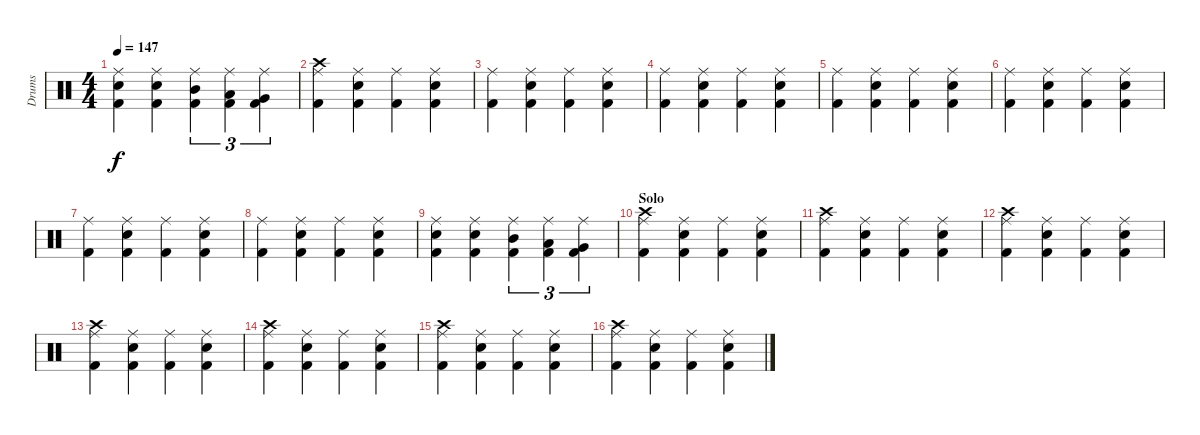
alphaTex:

\track ("Drums" "Drums") {instrument percussion}
\staff {score}
\articulation defaults
\ts (4 4)
\tempo 147
\clef neutral
\ks c
("Ride (middle)" "Electric Snare (hit)" "Kick (hit) 2").4{dy f} ("Ride (middle)" "Snare (hit) 2" "Kick (hit) 2").4 ("Ride (middle)" "Mid Tom (hit)" "Kick (hit) 2").4{tu (3 2)} ("Ride (middle)" "Low Tom (hit)" "Kick (hit) 2").4{tu (3 2)} ("Ride (middle)" "Very Low Tom (hit)" "Kick (hit) 2").4{tu (3 2)} |
("Crash high (hit)" "Ride (middle)" "Kick (hit) 2").4 ("Ride (middle)" "Electric Snare (hit)" "Kick (hit) 2").4 ("Ride (middle)" "Kick (hit) 2").4 ("Ride (middle)" "Electric Snare (hit)" "Kick (hit) 2").4 |
("Ride (middle)" "Kick (hit) 2").4 ("Ride (middle)" "Electric Snare (hit)" "Kick (hit) 2").4 ("Ride (middle)" "Kick (hit) 2").4 ("Ride (middle)" "Electric Snare (hit)" "Kick (hit) 2").4 |
("Ride (middle)" "Kick (hit) 2").4 ("Ride (middle)" "Electric Snare (hit)" "Kick (hit) 2").4 ("Ride (middle)" "Kick (hit) 2").4 ("Ride (middle)" "Electric Snare (hit)" "Kick (hit) 2").4 |
("Ride (middle)" "Kick (hit) 2").4 ("Ride (middle)" "Electric Snare (hit)" "Kick (hit) 2").4 ("Ride (middle)" "Kick (hit) 2").4 ("Ride (middle)" "Electric Snare (hit)" "Kick (hit) 2").4 |
("Ride (middle)" "Kick (hit) 2").4 ("Ride (middle)" "Electric Snare (hit)" "Kick (hit) 2").4 ("Ride (middle)" "Kick (hit) 2").4 ("Ride (middle)" "Electric Snare (hit)" "Kick (hit) 2").4 |
("Ride (middle)" "Kick (hit) 2").4 ("Ride (middle)" "Electric Snare (hit)" "Kick (hit) 2").4 ("Ride (middle)" "Kick (hit) 2").4 ("Ride (middle)" "Electric Snare (hit)" "Kick (hit) 2").4 |
("Ride (middle)" "Kick (hit) 2").4 ("Ride (middle)" "Electric Snare (hit)" "Kick (hit) 2").4 ("Ride (middle)" "Kick (hit) 2").4 ("Ride (middle)" "Electric Snare (hit)" "Kick (hit) 2").4 |
("Ride (middle)" "Electric Snare (hit)" "Kick (hit) 2").4 ("Ride (middle)" "Snare (hit) 2" "Kick (hit) 2").4 ("Ride (middle)" "Mid Tom (hit)" "Kick (hit) 2").4{tu (3 2)} ("Ride (middle)" "Low Tom (hit)" "Kick (hit) 2").4{tu (3 2)} ("Ride (middle)" "Very Low Tom (hit)" "Kick (hit) 2").4{tu (3 2)} |
\section ("" "Solo")
("Crash high (hit)" "Ride (middle)" "Kick (hit) 2").4 ("Ride (middle)" "Electric Snare (hit)" "Kick (hit) 2").4 ("Ride (middle)" "Kick (hit) 2").4 ("Ride (middle)" "Electric Snare (hit)" "Kick (hit) 2").4 |
("Crash high (hit)" "Ride (middle)" "Kick (hit) 2").4 ("Ride (middle)" "Electric Snare (hit)" "Kick (hit) 2").4 ("Ride (middle)" "Kick (hit) 2").4 ("Ride (middle)" "Electric Snare (hit)" "Kick (hit) 2").4 |
("Crash high (hit)" "Ride (middle)" "Kick (hit) 2").4 ("Ride (middle)" "Electric Snare (hit)" "Kick (hit) 2").4 ("Ride (middle)" "Kick (hit) 2").4 ("Ride (middle)" "Electric Snare (hit)" "Kick (hit) 2").4 |
("Crash high (hit)" "Ride (middle)" "Kick (hit) 2").4 ("Ride (middle)" "Electric Snare (hit)" "Kick (hit) 2").4 ("Ride (middle)" "Kick (hit) 2").4 ("Ride (middle)" "Electric Snare (hit)" "Kick (hit) 2").4 |
("Crash high (hit)" "Ride (middle)" "Kick (hit) 2").4 ("Ride (middle)" "Electric Snare (hit)" "Kick (hit) 2").4 ("Ride (middle)" "Kick (hit) 2").4 ("Ride (middle)" "Electric Snare (hit)" "Kick (hit) 2").4 |
("Crash high (hit)" "Ride (middle)" "Kick (hit) 2").4 ("Ride (middle)" "Electric Snare (hit)" "Kick (hit) 2").4 ("Ride (middle)" "Kick (hit) 2").4 ("Ride (middle)" "Electric Snare (hit)" "Kick (hit) 2").4 |
("Crash high (hit)" "Ride (middle)" "Kick (hit) 2").4 ("Ride (middle)" "Electric Snare (hit)" "Kick (hit) 2").4 ("Ride (middle)" "Kick (hit) 2").4 ("Ride (middle)" "Electric Snare (hit)" "Kick (hit) 2").4
